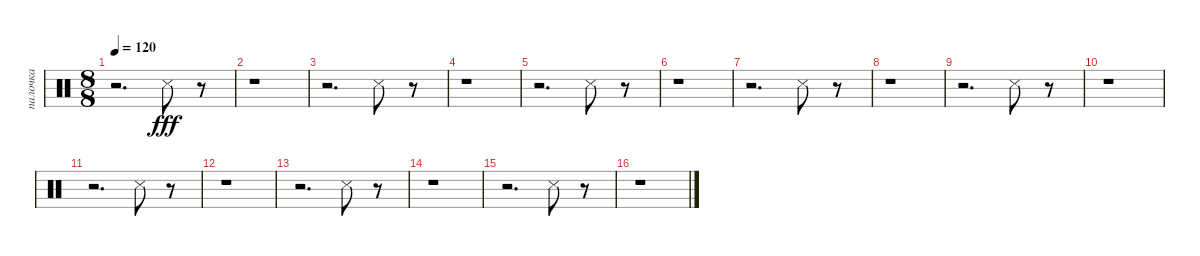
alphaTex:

\track ("палочка" "палочка") {instrument percussion}
\staff {score}
\articulation defaults
\ts (8 8)
\tempo 120
\clef neutral
\ks c
r.2{d dy fff} "Snare (side stick) 3".8 r.8 |
r.1 |
r.2{d} "Snare (side stick) 3".8 r.8 |
r.1 |
r.2{d} "Snare (side stick) 3".8 r.8 |
r.1 |
r.2{d} "Snare (side stick) 3".8 r.8 |
r.1 |
r.2{d} "Snare (side stick) 3".8 r.8 |
r.1 |
r.2{d} "Snare (side stick) 3".8 r.8 |
r.1 |
r.2{d} "Snare (side stick) 3".8 r.8 |
r.1 |
r.2{d} "Snare (side stick) 3".8 r.8 |
r.1
